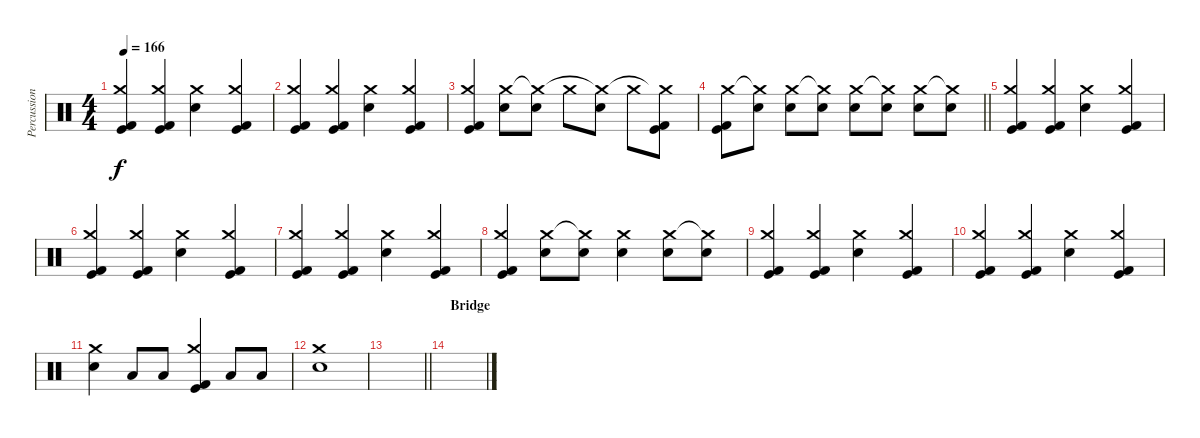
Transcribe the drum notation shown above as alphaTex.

\track ("Percussion" "Percussion") {instrument percussion}
\staff {score}
\articulation defaults
\ts (4 4)
\tempo 166
\clef neutral
\ks c
("Kick (hit) 2" "Crash medium (hit)" "Kick (hit)").4{dy f} ("Kick (hit) 2" "Crash medium (hit)" "Kick (hit)").4 ("Electric Snare (hit)" "Crash medium (hit)").4 ("Kick (hit) 2" "Crash medium (hit)" "Kick (hit)").4 |
("Kick (hit) 2" "Crash medium (hit)" "Kick (hit)").4 ("Kick (hit) 2" "Crash medium (hit)" "Kick (hit)").4 ("Electric Snare (hit)" "Crash medium (hit)").4 ("Kick (hit) 2" "Crash medium (hit)" "Kick (hit)").4 |
("Kick (hit) 2" "Crash medium (hit)" "Kick (hit)").4 ("Electric Snare (hit)" "Crash medium (hit)").8 ("Electric Snare (hit)" "Crash medium (hit)"{t}).8 "Crash medium (hit)".8 ("Electric Snare (hit)" "Crash medium (hit)"{t}).8 "Crash medium (hit)".8 ("Kick (hit) 2" "Crash medium (hit)"{t} "Kick (hit)").8 |
\barLineRight lightlight
("Kick (hit) 2" "Crash medium (hit)" "Kick (hit)").8 ("Electric Snare (hit)" "Crash medium (hit)"{t}).8 ("Electric Snare (hit)" "Crash medium (hit)").8 ("Electric Snare (hit)" "Crash medium (hit)"{t}).8 ("Electric Snare (hit)" "Crash medium (hit)").8 ("Electric Snare (hit)" "Crash medium (hit)"{t}).8 ("Electric Snare (hit)" "Crash medium (hit)").8 ("Electric Snare (hit)" "Crash medium (hit)"{t}).8 |
("Kick (hit) 2" "Crash medium (hit)" "Kick (hit)").4 ("Kick (hit) 2" "Crash medium (hit)" "Kick (hit)").4 ("Electric Snare (hit)" "Crash medium (hit)").4 ("Kick (hit) 2" "Crash medium (hit)" "Kick (hit)").4 |
("Kick (hit) 2" "Crash medium (hit)" "Kick (hit)").4 ("Kick (hit) 2" "Crash medium (hit)" "Kick (hit)").4 ("Electric Snare (hit)" "Crash medium (hit)").4 ("Kick (hit) 2" "Crash medium (hit)" "Kick (hit)").4 |
("Kick (hit) 2" "Crash medium (hit)" "Kick (hit)").4 ("Kick (hit) 2" "Crash medium (hit)" "Kick (hit)").4 ("Electric Snare (hit)" "Crash medium (hit)").4 ("Kick (hit) 2" "Crash medium (hit)" "Kick (hit)").4 |
("Kick (hit) 2" "Crash medium (hit)" "Kick (hit)").4 ("Electric Snare (hit)" "Crash medium (hit)").8 ("Electric Snare (hit)" "Crash medium (hit)"{t}).8 ("Electric Snare (hit)" "Crash medium (hit)").4 ("Electric Snare (hit)" "Crash medium (hit)").8 ("Electric Snare (hit)" "Crash medium (hit)"{t}).8 |
("Kick (hit) 2" "Crash medium (hit)" "Kick (hit)").4 ("Kick (hit) 2" "Crash medium (hit)" "Kick (hit)").4 ("Electric Snare (hit)" "Crash medium (hit)").4 ("Kick (hit) 2" "Crash medium (hit)" "Kick (hit)").4 |
("Kick (hit) 2" "Crash medium (hit)" "Kick (hit)").4 ("Kick (hit) 2" "Crash medium (hit)" "Kick (hit)").4 ("Electric Snare (hit)" "Crash medium (hit)").4 ("Kick (hit) 2" "Crash medium (hit)" "Kick (hit)").4 |
("Electric Snare (hit)" "Crash medium (hit)").4 "Low Tom (hit)".8 "Low Tom (hit)".8 ("Kick (hit) 2" "Crash medium (hit)" "Kick (hit)").4 "Low Tom (hit)".8 "Low Tom (hit)".8 |
("Electric Snare (hit)" "Crash medium (hit)").1 |
\barLineRight lightlight
|
\section ("" "Bridge")
